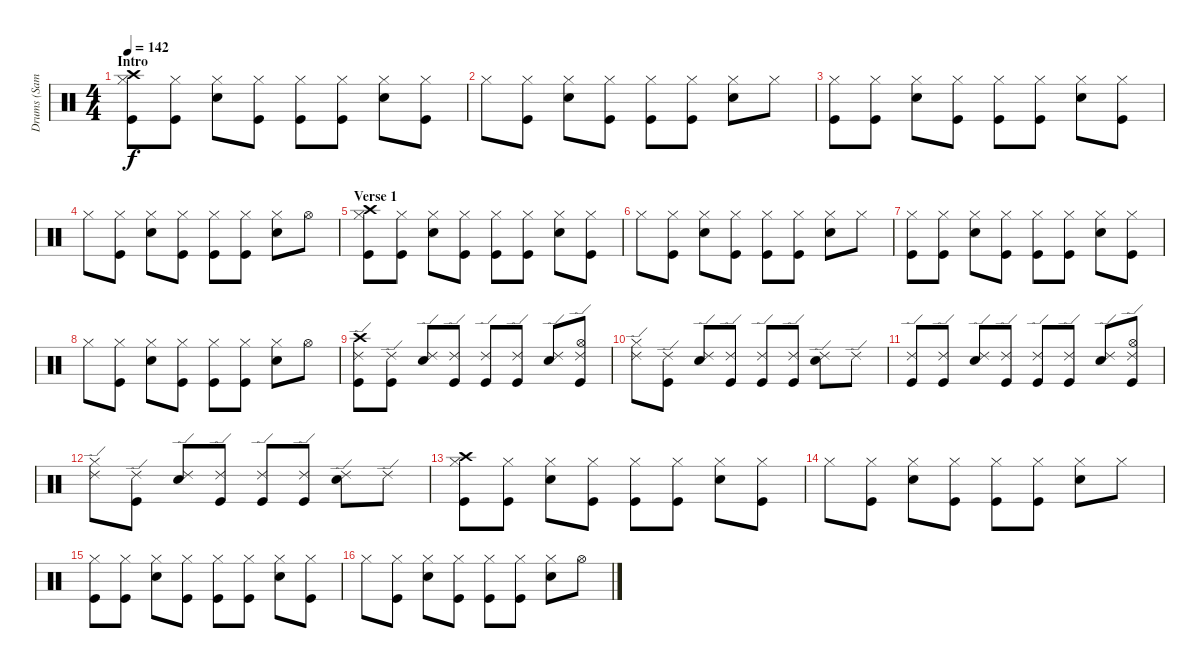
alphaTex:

\track ("Drums (Sam)" "Drums (Sam") {instrument percussion}
\staff {score}
\articulation defaults
\ts (4 4)
\section ("" "Intro")
\tempo 142
\clef neutral
\ks c
("Crash high (hit)" "Hi-Hat (closed)" "Kick (hit)").8{dy f} ("Hi-Hat (closed)" "Kick (hit)").8 ("Hi-Hat (closed)" "Snare (hit) 2").8 ("Hi-Hat (closed)" "Kick (hit)").8 ("Hi-Hat (closed)" "Kick (hit)").8 ("Hi-Hat (closed)" "Kick (hit)").8 ("Hi-Hat (closed)" "Snare (hit) 2").8 ("Hi-Hat (closed)" "Kick (hit)").8 |
"Hi-Hat (closed)".8 ("Hi-Hat (closed)" "Kick (hit)").8 ("Hi-Hat (closed)" "Snare (hit) 2").8 ("Hi-Hat (closed)" "Kick (hit)").8 ("Hi-Hat (closed)" "Kick (hit)").8 ("Hi-Hat (closed)" "Kick (hit)").8 ("Hi-Hat (closed)" "Snare (hit) 2").8 "Hi-Hat (closed)".8 |
("Hi-Hat (closed)" "Kick (hit)").8 ("Hi-Hat (closed)" "Kick (hit)").8 ("Hi-Hat (closed)" "Snare (hit) 2").8 ("Hi-Hat (closed)" "Kick (hit)").8 ("Hi-Hat (closed)" "Kick (hit)").8 ("Hi-Hat (closed)" "Kick (hit)").8 ("Hi-Hat (closed)" "Snare (hit) 2").8 ("Hi-Hat (closed)" "Kick (hit)").8 |
"Hi-Hat (closed)".8 ("Hi-Hat (closed)" "Kick (hit)").8 ("Hi-Hat (closed)" "Snare (hit) 2").8 ("Hi-Hat (closed)" "Kick (hit)").8 ("Hi-Hat (closed)" "Kick (hit)").8 ("Hi-Hat (closed)" "Kick (hit)").8 ("Hi-Hat (closed)" "Snare (hit) 2").8 "Hi-Hat (open)".8 |
\section ("" "Verse 1")
("Crash high (hit)" "Hi-Hat (closed)" "Kick (hit)").8 ("Hi-Hat (closed)" "Kick (hit)").8 ("Hi-Hat (closed)" "Snare (hit) 2").8 ("Hi-Hat (closed)" "Kick (hit)").8 ("Hi-Hat (closed)" "Kick (hit)").8 ("Hi-Hat (closed)" "Kick (hit)").8 ("Hi-Hat (closed)" "Snare (hit) 2").8 ("Hi-Hat (closed)" "Kick (hit)").8 |
"Hi-Hat (closed)".8 ("Hi-Hat (closed)" "Kick (hit)").8 ("Hi-Hat (closed)" "Snare (hit) 2").8 ("Hi-Hat (closed)" "Kick (hit)").8 ("Hi-Hat (closed)" "Kick (hit)").8 ("Hi-Hat (closed)" "Kick (hit)").8 ("Hi-Hat (closed)" "Snare (hit) 2").8 "Hi-Hat (closed)".8 |
("Hi-Hat (closed)" "Kick (hit)").8 ("Hi-Hat (closed)" "Kick (hit)").8 ("Hi-Hat (closed)" "Snare (hit) 2").8 ("Hi-Hat (closed)" "Kick (hit)").8 ("Hi-Hat (closed)" "Kick (hit)").8 ("Hi-Hat (closed)" "Kick (hit)").8 ("Hi-Hat (closed)" "Snare (hit) 2").8 ("Hi-Hat (closed)" "Kick (hit)").8 |
"Hi-Hat (closed)".8 ("Hi-Hat (closed)" "Kick (hit)").8 ("Hi-Hat (closed)" "Snare (hit) 2").8 ("Hi-Hat (closed)" "Kick (hit)").8 ("Hi-Hat (closed)" "Kick (hit)").8 ("Hi-Hat (closed)" "Kick (hit)").8 ("Hi-Hat (closed)" "Snare (hit) 2").8 "Hi-Hat (open)".8 |
("Crash high (hit)" "Ride (edge) 2" "Kick (hit)").8 ("Ride (edge) 2" "Kick (hit)").8 ("Ride (edge) 2" "Snare (hit) 2").8 ("Ride (edge) 2" "Kick (hit)").8 ("Ride (edge) 2" "Kick (hit)").8 ("Ride (edge) 2" "Kick (hit)").8 ("Ride (edge) 2" "Snare (hit) 2").8 ("Hi-Hat (open)" "Ride (edge) 2" "Kick (hit)").8 |
("Hi-Hat (closed)" "Ride (edge) 2").8 ("Ride (edge) 2" "Kick (hit)").8 ("Ride (edge) 2" "Snare (hit) 2").8 ("Ride (edge) 2" "Kick (hit)").8 ("Ride (edge) 2" "Kick (hit)").8 ("Ride (edge) 2" "Kick (hit)").8 ("Ride (edge) 2" "Snare (hit) 2").8 "Ride (edge) 2".8 |
("Ride (edge) 2" "Kick (hit)").8 ("Ride (edge) 2" "Kick (hit)").8 ("Ride (edge) 2" "Snare (hit) 2").8 ("Ride (edge) 2" "Kick (hit)").8 ("Ride (edge) 2" "Kick (hit)").8 ("Ride (edge) 2" "Kick (hit)").8 ("Ride (edge) 2" "Snare (hit) 2").8 ("Hi-Hat (open)" "Ride (edge) 2" "Kick (hit)").8 |
("Hi-Hat (closed)" "Ride (edge) 2").8 ("Ride (edge) 2" "Kick (hit)").8 ("Ride (edge) 2" "Snare (hit) 2").8 ("Ride (edge) 2" "Kick (hit)").8 ("Ride (edge) 2" "Kick (hit)").8 ("Ride (edge) 2" "Kick (hit)").8 ("Ride (edge) 2" "Snare (hit) 2").8 "Ride (edge) 2".8 |
("Crash high (hit)" "Hi-Hat (closed)" "Kick (hit)").8 ("Hi-Hat (closed)" "Kick (hit)").8 ("Hi-Hat (closed)" "Snare (hit) 2").8 ("Hi-Hat (closed)" "Kick (hit)").8 ("Hi-Hat (closed)" "Kick (hit)").8 ("Hi-Hat (closed)" "Kick (hit)").8 ("Hi-Hat (closed)" "Snare (hit) 2").8 ("Hi-Hat (closed)" "Kick (hit)").8 |
"Hi-Hat (closed)".8 ("Hi-Hat (closed)" "Kick (hit)").8 ("Hi-Hat (closed)" "Snare (hit) 2").8 ("Hi-Hat (closed)" "Kick (hit)").8 ("Hi-Hat (closed)" "Kick (hit)").8 ("Hi-Hat (closed)" "Kick (hit)").8 ("Hi-Hat (closed)" "Snare (hit) 2").8 "Hi-Hat (closed)".8 |
("Hi-Hat (closed)" "Kick (hit)").8 ("Hi-Hat (closed)" "Kick (hit)").8 ("Hi-Hat (closed)" "Snare (hit) 2").8 ("Hi-Hat (closed)" "Kick (hit)").8 ("Hi-Hat (closed)" "Kick (hit)").8 ("Hi-Hat (closed)" "Kick (hit)").8 ("Hi-Hat (closed)" "Snare (hit) 2").8 ("Hi-Hat (closed)" "Kick (hit)").8 |
"Hi-Hat (closed)".8 ("Hi-Hat (closed)" "Kick (hit)").8 ("Hi-Hat (closed)" "Snare (hit) 2").8 ("Hi-Hat (closed)" "Kick (hit)").8 ("Hi-Hat (closed)" "Kick (hit)").8 ("Hi-Hat (closed)" "Kick (hit)").8 ("Hi-Hat (closed)" "Snare (hit) 2").8 "Hi-Hat (open)".8
